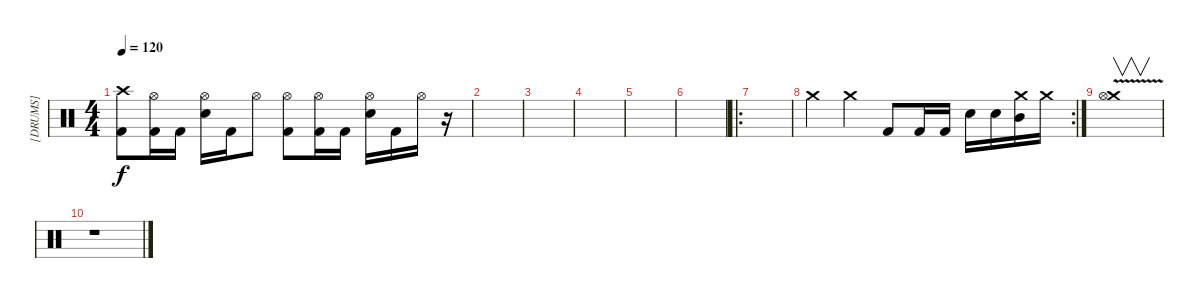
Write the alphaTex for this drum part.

\track ("[DRUMS]" "[DRUMS]") {instrument percussion}
\staff {score}
\articulation defaults
\ts (4 4)
\tempo 120
\clef neutral
\ks c
("Crash high (hit)" "Kick (hit) 2").8{dy f} ("Hi-Hat (open)" "Kick (hit) 2").16 "Kick (hit) 2".16 ("Hi-Hat (open)" "Electric Snare (hit)").16 "Kick (hit) 2".16 "Hi-Hat (open)".8 ("Hi-Hat (open)" "Kick (hit) 2").8 ("Hi-Hat (open)" "Kick (hit) 2").16 "Kick (hit) 2".16 ("Hi-Hat (open)" "Electric Snare (hit)").16 "Kick (hit) 2".16 "Hi-Hat (open)".16 r.16 |
|
|
|
|
|
\ro
|
\rc 2 "Crash medium (hit)".4 "Crash medium (hit)".4 "Kick (hit) 2".8 "Kick (hit) 2".16 "Kick (hit) 2".16 "Electric Snare (hit)".16 "Electric Snare (hit)".16
("Crash medium (hit)" "Mid Tom (hit)").16 "Crash medium (hit)".16 |
("Crash medium (hit)"{v} "Hi-Hat (open)").1{v} |
r.1
